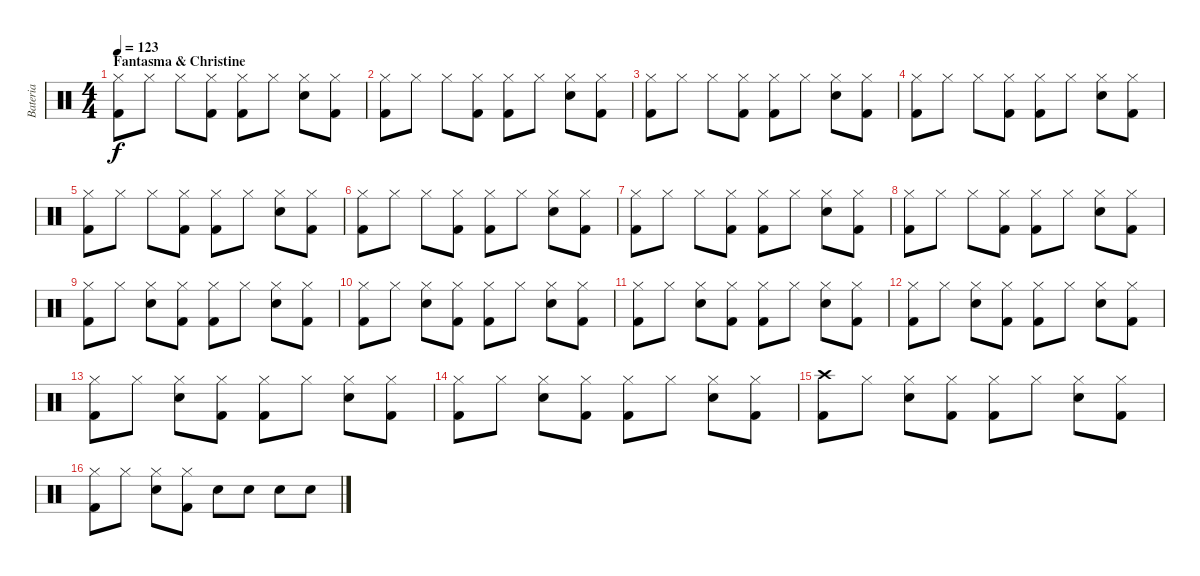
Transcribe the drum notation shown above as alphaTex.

\track ("Bateria" "Bateria") {instrument percussion}
\staff {score}
\articulation defaults
\ts (4 4)
\section ("" "Fantasma & Christine")
\tempo 123
\clef neutral
\ks c
("Hi-Hat (closed)" "Kick (hit) 2").8{dy f} "Hi-Hat (closed)".8 "Hi-Hat (closed)".8 ("Hi-Hat (closed)" "Kick (hit) 2").8 ("Hi-Hat (closed)" "Kick (hit) 2").8 "Hi-Hat (closed)".8 ("Hi-Hat (closed)" "Snare (hit) 2").8 ("Hi-Hat (closed)" "Kick (hit) 2").8 |
("Hi-Hat (closed)" "Kick (hit) 2").8 "Hi-Hat (closed)".8 "Hi-Hat (closed)".8 ("Hi-Hat (closed)" "Kick (hit) 2").8 ("Hi-Hat (closed)" "Kick (hit) 2").8 "Hi-Hat (closed)".8 ("Hi-Hat (closed)" "Snare (hit) 2").8 ("Hi-Hat (closed)" "Kick (hit) 2").8 |
("Hi-Hat (closed)" "Kick (hit) 2").8 "Hi-Hat (closed)".8 "Hi-Hat (closed)".8 ("Hi-Hat (closed)" "Kick (hit) 2").8 ("Hi-Hat (closed)" "Kick (hit) 2").8 "Hi-Hat (closed)".8 ("Hi-Hat (closed)" "Snare (hit) 2").8 ("Hi-Hat (closed)" "Kick (hit) 2").8 |
("Hi-Hat (closed)" "Kick (hit) 2").8 "Hi-Hat (closed)".8 "Hi-Hat (closed)".8 ("Hi-Hat (closed)" "Kick (hit) 2").8 ("Hi-Hat (closed)" "Kick (hit) 2").8 "Hi-Hat (closed)".8 ("Hi-Hat (closed)" "Snare (hit) 2").8 ("Hi-Hat (closed)" "Kick (hit) 2").8 |
("Hi-Hat (closed)" "Kick (hit) 2").8 "Hi-Hat (closed)".8 "Hi-Hat (closed)".8 ("Hi-Hat (closed)" "Kick (hit) 2").8 ("Hi-Hat (closed)" "Kick (hit) 2").8 "Hi-Hat (closed)".8 ("Hi-Hat (closed)" "Snare (hit) 2").8 ("Hi-Hat (closed)" "Kick (hit) 2").8 |
("Hi-Hat (closed)" "Kick (hit) 2").8 "Hi-Hat (closed)".8 "Hi-Hat (closed)".8 ("Hi-Hat (closed)" "Kick (hit) 2").8 ("Hi-Hat (closed)" "Kick (hit) 2").8 "Hi-Hat (closed)".8 ("Hi-Hat (closed)" "Snare (hit) 2").8 ("Hi-Hat (closed)" "Kick (hit) 2").8 |
("Hi-Hat (closed)" "Kick (hit) 2").8 "Hi-Hat (closed)".8 "Hi-Hat (closed)".8 ("Hi-Hat (closed)" "Kick (hit) 2").8 ("Hi-Hat (closed)" "Kick (hit) 2").8 "Hi-Hat (closed)".8 ("Hi-Hat (closed)" "Snare (hit) 2").8 ("Hi-Hat (closed)" "Kick (hit) 2").8 |
("Hi-Hat (closed)" "Kick (hit) 2").8 "Hi-Hat (closed)".8 "Hi-Hat (closed)".8 ("Hi-Hat (closed)" "Kick (hit) 2").8 ("Hi-Hat (closed)" "Kick (hit) 2").8 "Hi-Hat (closed)".8 ("Hi-Hat (closed)" "Snare (hit) 2").8 ("Hi-Hat (closed)" "Kick (hit) 2").8 |
("Hi-Hat (closed)" "Kick (hit) 2").8 "Hi-Hat (closed)".8 ("Hi-Hat (closed)" "Snare (hit) 2").8 ("Hi-Hat (closed)" "Kick (hit) 2").8 ("Hi-Hat (closed)" "Kick (hit) 2").8 "Hi-Hat (closed)".8 ("Hi-Hat (closed)" "Snare (hit) 2").8 ("Hi-Hat (closed)" "Kick (hit) 2").8 |
("Hi-Hat (closed)" "Kick (hit) 2").8 "Hi-Hat (closed)".8 ("Hi-Hat (closed)" "Snare (hit) 2").8 ("Hi-Hat (closed)" "Kick (hit) 2").8 ("Hi-Hat (closed)" "Kick (hit) 2").8 "Hi-Hat (closed)".8 ("Hi-Hat (closed)" "Snare (hit) 2").8 ("Hi-Hat (closed)" "Kick (hit) 2").8 |
("Hi-Hat (closed)" "Kick (hit) 2").8 "Hi-Hat (closed)".8 ("Hi-Hat (closed)" "Snare (hit) 2").8 ("Hi-Hat (closed)" "Kick (hit) 2").8 ("Hi-Hat (closed)" "Kick (hit) 2").8 "Hi-Hat (closed)".8 ("Hi-Hat (closed)" "Snare (hit) 2").8 ("Hi-Hat (closed)" "Kick (hit) 2").8 |
("Hi-Hat (closed)" "Kick (hit) 2").8 "Hi-Hat (closed)".8 ("Hi-Hat (closed)" "Snare (hit) 2").8 ("Hi-Hat (closed)" "Kick (hit) 2").8 ("Hi-Hat (closed)" "Kick (hit) 2").8 "Hi-Hat (closed)".8 ("Hi-Hat (closed)" "Snare (hit) 2").8 ("Hi-Hat (closed)" "Kick (hit) 2").8 |
("Hi-Hat (closed)" "Kick (hit) 2").8 "Hi-Hat (closed)".8 ("Hi-Hat (closed)" "Snare (hit) 2").8 ("Hi-Hat (closed)" "Kick (hit) 2").8 ("Hi-Hat (closed)" "Kick (hit) 2").8 "Hi-Hat (closed)".8 ("Hi-Hat (closed)" "Snare (hit) 2").8 ("Hi-Hat (closed)" "Kick (hit) 2").8 |
("Hi-Hat (closed)" "Kick (hit) 2").8 "Hi-Hat (closed)".8 ("Hi-Hat (closed)" "Snare (hit) 2").8 ("Hi-Hat (closed)" "Kick (hit) 2").8 ("Hi-Hat (closed)" "Kick (hit) 2").8 "Hi-Hat (closed)".8 ("Hi-Hat (closed)" "Snare (hit) 2").8 ("Hi-Hat (closed)" "Kick (hit) 2").8 |
("Crash high (hit)" "Kick (hit) 2").8 "Hi-Hat (closed)".8 ("Hi-Hat (closed)" "Snare (hit) 2").8 ("Hi-Hat (closed)" "Kick (hit) 2").8 ("Hi-Hat (closed)" "Kick (hit) 2").8 "Hi-Hat (closed)".8 ("Hi-Hat (closed)" "Snare (hit) 2").8 ("Hi-Hat (closed)" "Kick (hit) 2").8 |
("Hi-Hat (closed)" "Kick (hit) 2").8 "Hi-Hat (closed)".8 ("Hi-Hat (closed)" "Snare (hit) 2").8 ("Hi-Hat (closed)" "Kick (hit) 2").8 "Snare (hit) 2".8 "Snare (hit) 2".8 "Snare (hit) 2".8 "Snare (hit) 2".8
